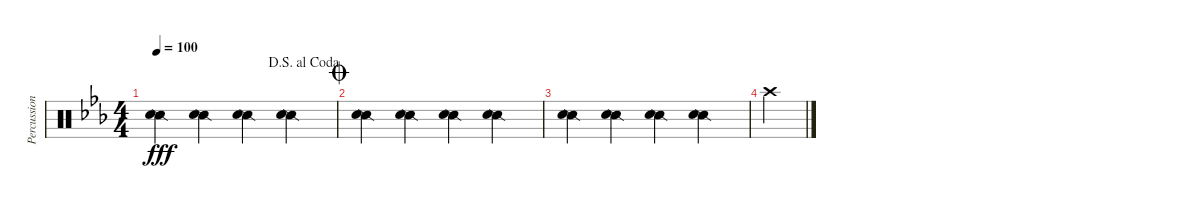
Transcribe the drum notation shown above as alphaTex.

\track ("Percussions" "Percussion") {instrument percussion}
\staff {score}
\articulation defaults
\ts (4 4)
\jump dalsegnoalcoda
\tempo 100
\clef neutral
\ks eb
("Snare (side stick) 2" "Snare (hit) 2").4{dy fff} ("Snare (side stick) 2" "Snare (hit) 2").4 ("Snare (side stick) 2" "Snare (hit) 2").4 ("Snare (side stick) 2" "Snare (hit) 2").4 |
\jump coda
("Snare (side stick) 2" "Snare (hit) 2").4 ("Snare (side stick) 2" "Snare (hit) 2").4 ("Snare (side stick) 2" "Snare (hit) 2").4 ("Snare (side stick) 2" "Snare (hit) 2").4 |
("Snare (side stick) 2" "Snare (hit) 2").4 ("Snare (side stick) 2" "Snare (hit) 2").4 ("Snare (side stick) 2" "Snare (hit) 2").4 ("Snare (side stick) 2" "Snare (hit) 2").4 |
"Crash high (hit)".4
